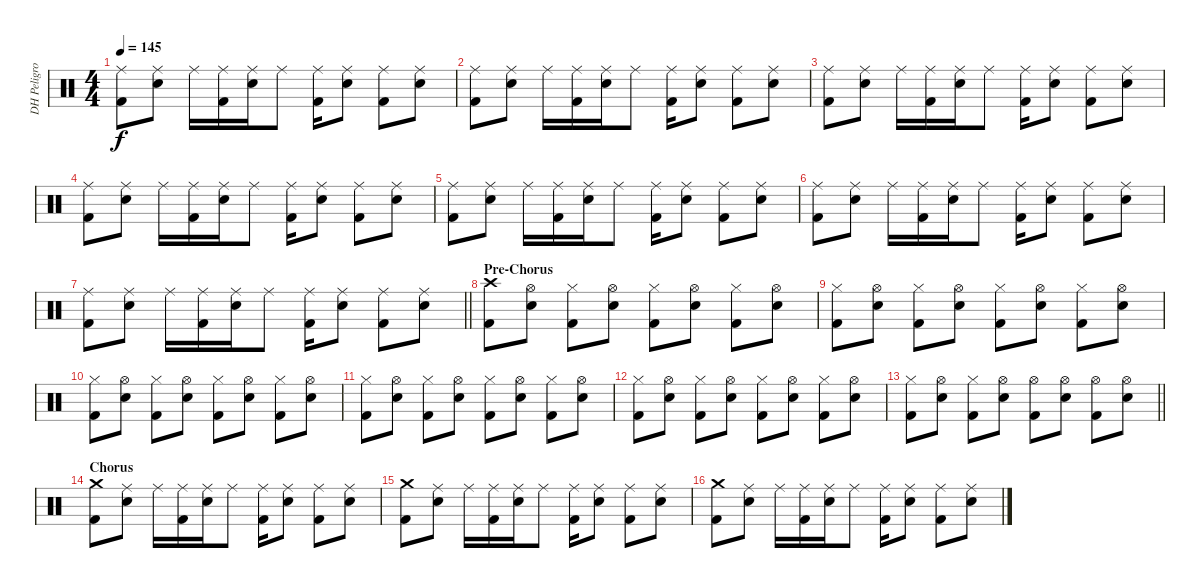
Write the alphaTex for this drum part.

\track ("DH Peligro" "DH Peligro") {instrument percussion}
\staff {score}
\articulation defaults
\ts (4 4)
\tempo 145
\clef neutral
\ks c
("Ride (middle)" "Kick (hit) 2").8{dy f} ("Ride (middle)" "Snare (hit) 2").8 "Ride (middle)".16 ("Ride (middle)" "Kick (hit) 2").16 ("Ride (middle)" "Snare (hit) 2").16 "Ride (middle)".8 ("Ride (middle)" "Kick (hit) 2").16 ("Ride (middle)" "Snare (hit) 2").8 ("Ride (middle)" "Kick (hit) 2").8 ("Ride (middle)" "Snare (hit) 2").8 |
("Ride (middle)" "Kick (hit) 2").8 ("Ride (middle)" "Snare (hit) 2").8 "Ride (middle)".16 ("Ride (middle)" "Kick (hit) 2").16 ("Ride (middle)" "Snare (hit) 2").16 "Ride (middle)".8 ("Ride (middle)" "Kick (hit) 2").16 ("Ride (middle)" "Snare (hit) 2").8 ("Ride (middle)" "Kick (hit) 2").8 ("Ride (middle)" "Snare (hit) 2").8 |
("Ride (middle)" "Kick (hit) 2").8 ("Ride (middle)" "Snare (hit) 2").8 "Ride (middle)".16 ("Ride (middle)" "Kick (hit) 2").16 ("Ride (middle)" "Snare (hit) 2").16 "Ride (middle)".8 ("Ride (middle)" "Kick (hit) 2").16 ("Ride (middle)" "Snare (hit) 2").8 ("Ride (middle)" "Kick (hit) 2").8 ("Ride (middle)" "Snare (hit) 2").8 |
("Ride (middle)" "Kick (hit) 2").8 ("Ride (middle)" "Snare (hit) 2").8 "Ride (middle)".16 ("Ride (middle)" "Kick (hit) 2").16 ("Ride (middle)" "Snare (hit) 2").16 "Ride (middle)".8 ("Ride (middle)" "Kick (hit) 2").16 ("Ride (middle)" "Snare (hit) 2").8 ("Ride (middle)" "Kick (hit) 2").8 ("Ride (middle)" "Snare (hit) 2").8 |
("Ride (middle)" "Kick (hit) 2").8 ("Ride (middle)" "Snare (hit) 2").8 "Ride (middle)".16 ("Ride (middle)" "Kick (hit) 2").16 ("Ride (middle)" "Snare (hit) 2").16 "Ride (middle)".8 ("Ride (middle)" "Kick (hit) 2").16 ("Ride (middle)" "Snare (hit) 2").8 ("Ride (middle)" "Kick (hit) 2").8 ("Ride (middle)" "Snare (hit) 2").8 |
("Ride (middle)" "Kick (hit) 2").8 ("Ride (middle)" "Snare (hit) 2").8 "Ride (middle)".16 ("Ride (middle)" "Kick (hit) 2").16 ("Ride (middle)" "Snare (hit) 2").16 "Ride (middle)".8 ("Ride (middle)" "Kick (hit) 2").16 ("Ride (middle)" "Snare (hit) 2").8 ("Ride (middle)" "Kick (hit) 2").8 ("Ride (middle)" "Snare (hit) 2").8 |
\barLineRight lightlight
("Ride (middle)" "Kick (hit) 2").8 ("Ride (middle)" "Snare (hit) 2").8 "Ride (middle)".16 ("Ride (middle)" "Kick (hit) 2").16 ("Ride (middle)" "Snare (hit) 2").16 "Ride (middle)".8 ("Ride (middle)" "Kick (hit) 2").16 ("Ride (middle)" "Snare (hit) 2").8 ("Ride (middle)" "Kick (hit) 2").8 ("Ride (middle)" "Snare (hit) 2").8 |
\section ("" "Pre-Chorus")
("Crash high (hit)" "Kick (hit) 2").8 ("Hi-Hat (open)" "Snare (hit) 2").8 ("Hi-Hat (closed)" "Kick (hit) 2").8 ("Hi-Hat (open)" "Snare (hit) 2").8 ("Hi-Hat (closed)" "Kick (hit) 2").8 ("Hi-Hat (open)" "Snare (hit) 2").8 ("Hi-Hat (closed)" "Kick (hit) 2").8 ("Hi-Hat (open)" "Snare (hit) 2").8 |
("Hi-Hat (closed)" "Kick (hit) 2").8 ("Hi-Hat (open)" "Snare (hit) 2").8 ("Hi-Hat (closed)" "Kick (hit) 2").8 ("Hi-Hat (open)" "Snare (hit) 2").8 ("Hi-Hat (closed)" "Kick (hit) 2").8 ("Hi-Hat (open)" "Snare (hit) 2").8 ("Hi-Hat (closed)" "Kick (hit) 2").8 ("Hi-Hat (open)" "Snare (hit) 2").8 |
("Hi-Hat (closed)" "Kick (hit) 2").8 ("Hi-Hat (open)" "Snare (hit) 2").8 ("Hi-Hat (closed)" "Kick (hit) 2").8 ("Hi-Hat (open)" "Snare (hit) 2").8 ("Hi-Hat (closed)" "Kick (hit) 2").8 ("Hi-Hat (open)" "Snare (hit) 2").8 ("Hi-Hat (closed)" "Kick (hit) 2").8 ("Hi-Hat (open)" "Snare (hit) 2").8 |
("Hi-Hat (closed)" "Kick (hit) 2").8 ("Hi-Hat (open)" "Snare (hit) 2").8 ("Hi-Hat (closed)" "Kick (hit) 2").8 ("Hi-Hat (open)" "Snare (hit) 2").8 ("Hi-Hat (closed)" "Kick (hit) 2").8 ("Hi-Hat (open)" "Snare (hit) 2").8 ("Hi-Hat (closed)" "Kick (hit) 2").8 ("Hi-Hat (open)" "Snare (hit) 2").8 |
("Hi-Hat (closed)" "Kick (hit) 2").8 ("Hi-Hat (open)" "Snare (hit) 2").8 ("Hi-Hat (closed)" "Kick (hit) 2").8 ("Hi-Hat (open)" "Snare (hit) 2").8 ("Hi-Hat (closed)" "Kick (hit) 2").8 ("Hi-Hat (open)" "Snare (hit) 2").8 ("Hi-Hat (closed)" "Kick (hit) 2").8 ("Hi-Hat (open)" "Snare (hit) 2").8 |
\barLineRight lightlight
("Hi-Hat (closed)" "Kick (hit) 2").8 ("Hi-Hat (open)" "Snare (hit) 2").8 ("Hi-Hat (closed)" "Kick (hit) 2").8 ("Hi-Hat (open)" "Snare (hit) 2").8 ("Hi-Hat (open)" "Kick (hit) 2").8 ("Hi-Hat (open)" "Snare (hit) 2").8 ("Hi-Hat (open)" "Kick (hit) 2").8 ("Hi-Hat (open)" "Snare (hit) 2").8 |
\section ("" "Chorus")
("Crash medium (hit)" "Kick (hit) 2").8 ("Ride (middle)" "Snare (hit) 2").8 "Ride (middle)".16 ("Ride (middle)" "Kick (hit) 2").16 ("Ride (middle)" "Snare (hit) 2").16 "Ride (middle)".8 ("Ride (middle)" "Kick (hit) 2").16 ("Ride (middle)" "Snare (hit) 2").8 ("Ride (middle)" "Kick (hit) 2").8 ("Ride (middle)" "Snare (hit) 2").8 |
("Crash medium (hit)" "Kick (hit) 2").8 ("Ride (middle)" "Snare (hit) 2").8 "Ride (middle)".16 ("Ride (middle)" "Kick (hit) 2").16 ("Ride (middle)" "Snare (hit) 2").16 "Ride (middle)".8 ("Ride (middle)" "Kick (hit) 2").16 ("Ride (middle)" "Snare (hit) 2").8 ("Ride (middle)" "Kick (hit) 2").8 ("Ride (middle)" "Snare (hit) 2").8 |
("Crash medium (hit)" "Kick (hit) 2").8 ("Ride (middle)" "Snare (hit) 2").8 "Ride (middle)".16 ("Ride (middle)" "Kick (hit) 2").16 ("Ride (middle)" "Snare (hit) 2").16 "Ride (middle)".8 ("Ride (middle)" "Kick (hit) 2").16 ("Ride (middle)" "Snare (hit) 2").8 ("Ride (middle)" "Kick (hit) 2").8 ("Ride (middle)" "Snare (hit) 2").8
